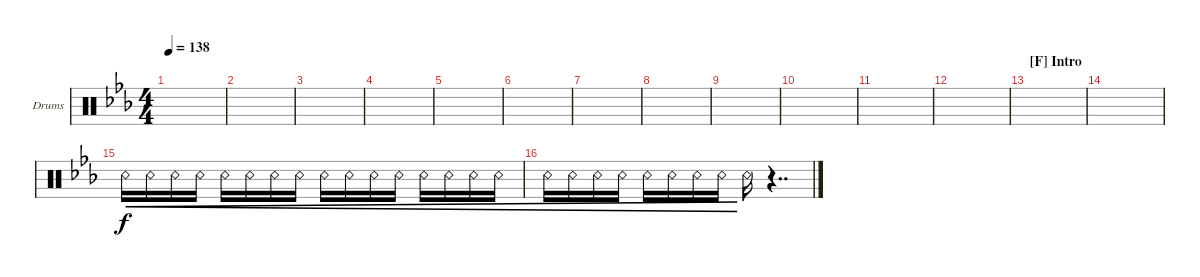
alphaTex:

\defaultSystemsLayout 4
\bracketExtendMode groupsimilarinstruments
\firstSystemTrackNameOrientation horizontal
\otherSystemsTrackNameOrientation horizontal
\track ("Drums" "Drums") {instrument percussion}
\staff {score}
\articulation defaults
\ts (4 4)
\tempo 138
\clef neutral
\scale
0.333333
\ks eb
|
\scale
0.333333 |
\scale
0.333333 |
\scale
0.333333 |
\scale
0.333333 |
\scale
0.333333 |
\scale
0.333333 |
\scale
0.333333 |
\scale
0.333333 |
\scale
0.333333 |
\scale
0.333333 |
\scale
0.333333 |
\section ("F" "Intro")
\scale
0.333333 |
\scale
0.333333 |
\scale
0.333333 "Snare (rim shot)".16{cre} "Snare (rim shot)".16{cre} "Snare (rim shot)".16{cre} "Snare (rim shot)".16{cre} "Snare (rim shot)".16{cre} "Snare (rim shot)".16{cre} "Snare (rim shot)".16{cre} "Snare (rim shot)".16{cre} "Snare (rim shot)".16{cre} "Snare (rim shot)".16{cre} "Snare (rim shot)".16{cre} "Snare (rim shot)".16{cre} "Snare (rim shot)".16{cre} "Snare (rim shot)".16{cre} "Snare (rim shot)".16{cre} "Snare (rim shot)".16{cre} |
\scale
0.333333 "Snare (rim shot)".16{cre} "Snare (rim shot)".16{cre} "Snare (rim shot)".16{cre} "Snare (rim shot)".16{cre} "Snare (rim shot)".16{cre} "Snare (rim shot)".16{cre} "Snare (rim shot)".16{cre} "Snare (rim shot)".16{cre} "Snare (rim shot)".16 r.4{dd}
